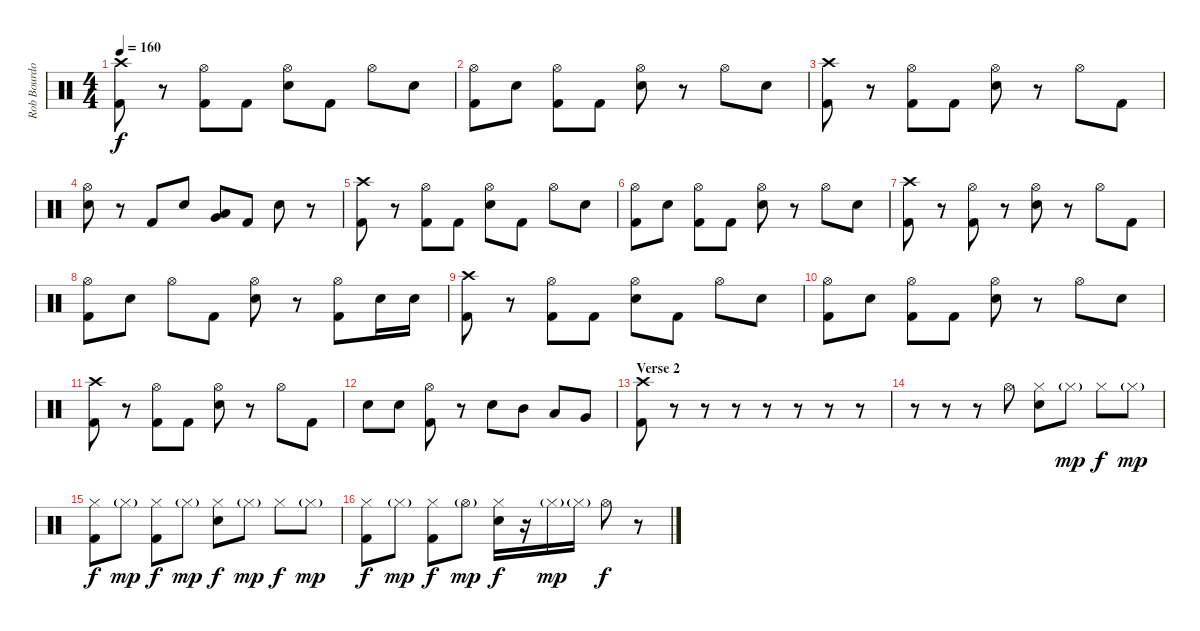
\track ("Rob Bourdon (Drums)" "Rob Bourdo") {instrument percussion}
\staff {score}
\articulation defaults
\ts (4 4)
\tempo 160
\clef neutral
\ks c
("Crash high (hit)" "Kick (hit) 2").8{dy f} r.8 ("Hi-Hat (open)" "Kick (hit) 2").8 "Kick (hit) 2".8 ("Hi-Hat (open)" "Electric Snare (hit)").8 "Kick (hit) 2".8 "Hi-Hat (open)".8 "Electric Snare (hit)".8 |
("Hi-Hat (open)" "Kick (hit) 2").8 "Electric Snare (hit)".8 ("Hi-Hat (open)" "Kick (hit) 2").8 "Kick (hit) 2".8 ("Hi-Hat (open)" "Electric Snare (hit)").8 r.8 "Hi-Hat (open)".8 "Electric Snare (hit)".8 |
("Crash high (hit)" "Kick (hit) 2").8 r.8 ("Hi-Hat (open)" "Kick (hit) 2").8 "Kick (hit) 2".8 ("Hi-Hat (open)" "Electric Snare (hit)").8 r.8 "Hi-Hat (open)".8 "Kick (hit) 2".8 |
("Hi-Hat (open)" "Electric Snare (hit)").8 r.8 "Kick (hit) 2".8 "Electric Snare (hit)".8 ("Low Tom (hit)" "Very Low Tom (hit)").8 "Kick (hit) 2".8 "Electric Snare (hit)".8 r.8 |
("Crash high (hit)" "Kick (hit) 2").8 r.8 ("Hi-Hat (open)" "Kick (hit) 2").8 "Kick (hit) 2".8 ("Hi-Hat (open)" "Electric Snare (hit)").8 "Kick (hit) 2".8 "Hi-Hat (open)".8 "Electric Snare (hit)".8 |
("Hi-Hat (open)" "Kick (hit) 2").8 "Electric Snare (hit)".8 ("Hi-Hat (open)" "Kick (hit) 2").8 "Kick (hit) 2".8 ("Hi-Hat (open)" "Electric Snare (hit)").8 r.8 "Hi-Hat (open)".8 "Electric Snare (hit)".8 |
("Crash high (hit)" "Kick (hit) 2").8 r.8 ("Hi-Hat (open)" "Kick (hit) 2").8 r.8 ("Hi-Hat (open)" "Electric Snare (hit)").8 r.8 "Hi-Hat (open)".8 "Kick (hit) 2".8 |
("Hi-Hat (open)" "Kick (hit) 2").8 "Electric Snare (hit)".8 "Hi-Hat (open)".8 "Kick (hit) 2".8 ("Hi-Hat (open)" "Electric Snare (hit)").8 r.8 ("Hi-Hat (open)" "Kick (hit) 2").8 "Electric Snare (hit)".16 "Electric Snare (hit)".16 |
("Crash high (hit)" "Kick (hit) 2").8 r.8 ("Hi-Hat (open)" "Kick (hit) 2").8 "Kick (hit) 2".8 ("Hi-Hat (open)" "Electric Snare (hit)").8 "Kick (hit) 2".8 "Hi-Hat (open)".8 "Electric Snare (hit)".8 |
("Hi-Hat (open)" "Kick (hit) 2").8 "Electric Snare (hit)".8 ("Hi-Hat (open)" "Kick (hit) 2").8 "Kick (hit) 2".8 ("Hi-Hat (open)" "Electric Snare (hit)").8 r.8 "Hi-Hat (open)".8 "Electric Snare (hit)".8 |
("Crash high (hit)" "Kick (hit) 2").8 r.8 ("Hi-Hat (open)" "Kick (hit) 2").8 "Kick (hit) 2".8 ("Hi-Hat (open)" "Electric Snare (hit)").8 r.8 "Hi-Hat (open)".8 "Kick (hit) 2".8 |
"Electric Snare (hit)".8 "Electric Snare (hit)".8 ("Hi-Hat (open)" "Kick (hit) 2").8 r.8 "Electric Snare (hit)".8 "Mid Tom (hit)".8 "Low Tom (hit)".8 "Very Low Tom (hit)".8 |
\section ("" "Verse 2")
("Crash high (hit)" "Kick (hit) 2").8 r.8 r.8 r.8 r.8 r.8 r.8 r.8 |
r.8 r.8 r.8 "Hi-Hat (open)".8 ("Hi-Hat (closed)" "Electric Snare (hit)").8 "Hi-Hat (closed)"{g}.8{dy mp} "Hi-Hat (closed)".8{dy f} "Hi-Hat (closed)"{g}.8{dy mp} |
("Hi-Hat (closed)" "Kick (hit) 2").8{dy f} "Hi-Hat (closed)"{g}.8{dy mp} ("Hi-Hat (closed)" "Kick (hit) 2").8{dy f} "Hi-Hat (closed)"{g}.8{dy mp} ("Hi-Hat (closed)" "Electric Snare (hit)").8{dy f} "Hi-Hat (closed)"{g}.8{dy mp} "Hi-Hat (closed)".8{dy f} "Hi-Hat (closed)"{g}.8{dy mp} |
("Hi-Hat (closed)" "Kick (hit) 2").8{dy f} "Hi-Hat (closed)"{g}.8{dy mp} ("Hi-Hat (closed)" "Kick (hit) 2").8{dy f} "Hi-Hat (open)"{g}.8{dy mp} ("Hi-Hat (closed)" "Electric Snare (hit)").16{dy f} r.16 "Hi-Hat (closed)"{g}.16{dy mp} "Hi-Hat (closed)"{g}.16 "Hi-Hat (open)".8{dy f} r.8
